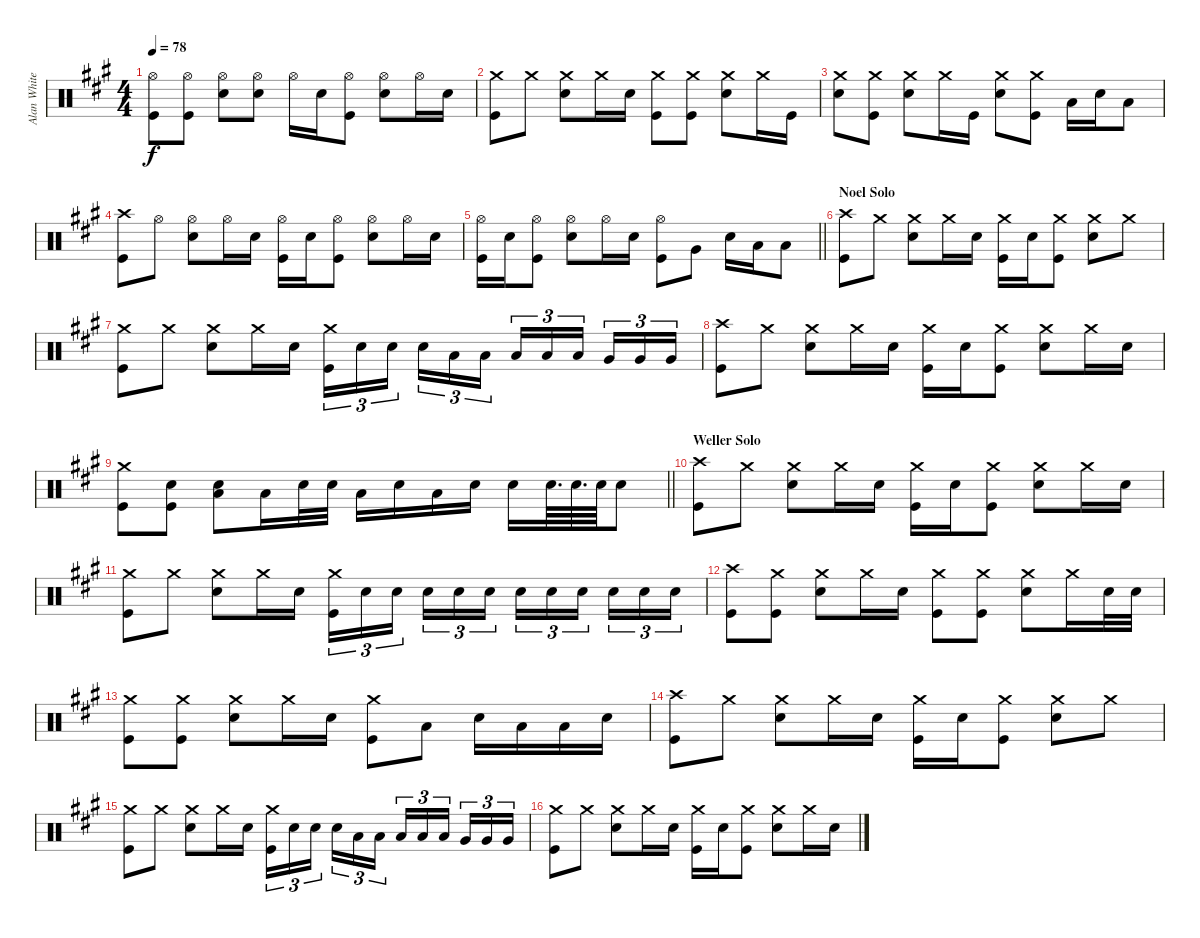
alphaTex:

\track ("Alan White (Drums)" "Alan White") {instrument percussion}
\staff {score}
\articulation defaults
\ts (4 4)
\tempo 78
\clef neutral
\ks a
("Hi-Hat (open)" "Kick (hit)").8{dy f} ("Hi-Hat (open)" "Kick (hit)").8 ("Hi-Hat (open)" "Snare (hit) 2").8 ("Hi-Hat (open)" "Snare (hit) 2").8 "Hi-Hat (open)".16 "Snare (hit) 2".16 ("Hi-Hat (open)" "Kick (hit)").8 ("Hi-Hat (open)" "Snare (hit) 2").8 "Hi-Hat (open)".16 "Snare (hit) 2".16 |
("Crash medium (hit)" "Kick (hit)").8 "Crash medium (hit)".8 ("Crash medium (hit)" "Snare (hit) 2").8 "Crash medium (hit)".16 "Snare (hit) 2".16 ("Crash medium (hit)" "Kick (hit)").8 ("Crash medium (hit)" "Kick (hit)").8 ("Crash medium (hit)" "Snare (hit) 2").8 "Crash medium (hit)".16 "Kick (hit)".16 |
("Crash medium (hit)" "Snare (hit) 2").8 ("Crash medium (hit)" "Kick (hit)").8 ("Crash medium (hit)" "Snare (hit) 2").8 "Crash medium (hit)".16 "Kick (hit)".16 ("Crash medium (hit)" "Snare (hit) 2").8 ("Crash medium (hit)" "Kick (hit)").8 "Low Tom (hit)".16 "Snare (hit) 2".16 "Low Tom (hit)".8 |
("Crash high (hit)" "Kick (hit)").8 "Hi-Hat (open)".8 ("Hi-Hat (open)" "Snare (hit) 2").8 "Hi-Hat (open)".16 "Snare (hit) 2".16 ("Hi-Hat (open)" "Kick (hit)").16 "Snare (hit) 2".16 ("Hi-Hat (open)" "Kick (hit)").8 ("Hi-Hat (open)" "Snare (hit) 2").8 "Hi-Hat (open)".16 "Snare (hit) 2".16 |
\barLineRight lightlight
("Hi-Hat (open)" "Kick (hit)").16 "Snare (hit) 2".16 ("Hi-Hat (open)" "Kick (hit)").8 ("Hi-Hat (open)" "Snare (hit) 2").8 "Hi-Hat (open)".16 "Snare (hit) 2".16 ("Hi-Hat (open)" "Kick (hit)").8 "Very Low Tom (hit)".8 "Snare (hit) 2".16 "Low Tom (hit)".16 "Low Tom (hit)".8 |
\section ("" "Noel Solo")
("Crash high (hit)" "Kick (hit)").8 "Crash medium (hit)".8 ("Crash medium (hit)" "Snare (hit) 2").8 "Crash medium (hit)".16 "Snare (hit) 2".16 ("Crash medium (hit)" "Kick (hit)").16 "Snare (hit) 2".16 ("Crash medium (hit)" "Kick (hit)").8 ("Crash medium (hit)" "Snare (hit) 2").8 "Crash medium (hit)".8 |
("Crash medium (hit)" "Kick (hit)").8 "Crash medium (hit)".8 ("Crash medium (hit)" "Snare (hit) 2").8 "Crash medium (hit)".16 "Snare (hit) 2".16 ("Crash medium (hit)" "Kick (hit)").16{tu (3 2)} "Snare (hit) 2".16{tu (3 2)} "Snare (hit) 2".16{tu (3 2) beam splitsecondary} "Snare (hit) 2".16{tu (3 2)} "Low Tom (hit)".16{tu (3 2)} "Low Tom (hit)".16{tu (3 2)} "Low Tom (hit)".16{tu (3 2)} "Low Tom (hit)".16{tu (3 2)} "Low Tom (hit)".16{tu (3 2) beam splitsecondary} "Very Low Tom (hit)".16{tu (3 2)} "Very Low Tom (hit)".16{tu (3 2)} "Very Low Tom (hit)".16{tu (3 2)} |
("Crash high (hit)" "Kick (hit)").8 "Crash medium (hit)".8 ("Crash medium (hit)" "Snare (hit) 2").8 "Crash medium (hit)".16 "Snare (hit) 2".16 ("Crash medium (hit)" "Kick (hit)").16 "Snare (hit) 2".16 ("Crash medium (hit)" "Kick (hit)").8 ("Crash medium (hit)" "Snare (hit) 2").8 "Crash medium (hit)".16 "Snare (hit) 2".16 |
\barLineRight lightlight
("Crash medium (hit)" "Kick (hit)").8 ("Snare (hit) 2" "Kick (hit)").8 ("Low Tom (hit)" "Snare (hit) 2").8 "Low Tom (hit)".16 "Snare (hit) 2".32 "Snare (hit) 2".32 "Low Tom (hit)".16 "Snare (hit) 2".16 "Low Tom (hit)".16 "Snare (hit) 2".16 "Snare (hit) 2".16 "Snare (hit) 2".64{d} "Snare (hit) 2".64{d} "Snare (hit) 2".64 "Snare (hit) 2".8 |
\section ("" "Weller Solo")
("Crash high (hit)" "Kick (hit)").8 "Crash medium (hit)".8 ("Crash medium (hit)" "Snare (hit) 2").8 "Crash medium (hit)".16 "Snare (hit) 2".16 ("Crash medium (hit)" "Kick (hit)").16 "Snare (hit) 2".16 ("Crash medium (hit)" "Kick (hit)").8 ("Crash medium (hit)" "Snare (hit) 2").8 "Crash medium (hit)".16 "Snare (hit) 2".16 |
("Crash medium (hit)" "Kick (hit)").8 "Crash medium (hit)".8 ("Crash medium (hit)" "Snare (hit) 2").8 "Crash medium (hit)".16 "Snare (hit) 2".16 ("Crash medium (hit)" "Kick (hit)").16{tu (3 2)} "Snare (hit) 2".16{tu (3 2)} "Snare (hit) 2".16{tu (3 2) beam splitsecondary} "Snare (hit) 2".16{tu (3 2)} "Snare (hit) 2".16{tu (3 2)} "Snare (hit) 2".16{tu (3 2)} "Snare (hit) 2".16{tu (3 2)} "Snare (hit) 2".16{tu (3 2)} "Snare (hit) 2".16{tu (3 2) beam splitsecondary} "Snare (hit) 2".16{tu (3 2)} "Snare (hit) 2".16{tu (3 2)} "Snare (hit) 2".16{tu (3 2)} |
("Crash high (hit)" "Kick (hit)").8 ("Crash medium (hit)" "Kick (hit)").8 ("Crash medium (hit)" "Snare (hit) 2").8 "Crash medium (hit)".16 "Snare (hit) 2".16 ("Crash medium (hit)" "Kick (hit)").8 ("Crash medium (hit)" "Kick (hit)").8 ("Crash medium (hit)" "Snare (hit) 2").8 "Crash medium (hit)".16 "Snare (hit) 2".32 "Snare (hit) 2".32 |
("Crash medium (hit)" "Kick (hit)").8 ("Crash medium (hit)" "Kick (hit)").8 ("Crash medium (hit)" "Snare (hit) 2").8 "Crash medium (hit)".16 "Snare (hit) 2".16 ("Crash medium (hit)" "Kick (hit)").8 "Low Tom (hit)".8 "Snare (hit) 2".16 "Low Tom (hit)".16 "Low Tom (hit)".16 "Snare (hit) 2".16 |
("Crash high (hit)" "Kick (hit)").8 "Crash medium (hit)".8 ("Crash medium (hit)" "Snare (hit) 2").8 "Crash medium (hit)".16 "Snare (hit) 2".16 ("Crash medium (hit)" "Kick (hit)").16 "Snare (hit) 2".16 ("Crash medium (hit)" "Kick (hit)").8 ("Crash medium (hit)" "Snare (hit) 2").8 "Crash medium (hit)".8 |
("Crash medium (hit)" "Kick (hit)").8 "Crash medium (hit)".8 ("Crash medium (hit)" "Snare (hit) 2").8 "Crash medium (hit)".16 "Snare (hit) 2".16 ("Crash medium (hit)" "Kick (hit)").16{tu (3 2)} "Snare (hit) 2".16{tu (3 2)} "Snare (hit) 2".16{tu (3 2) beam splitsecondary} "Snare (hit) 2".16{tu (3 2)} "Low Tom (hit)".16{tu (3 2)} "Low Tom (hit)".16{tu (3 2)} "Low Tom (hit)".16{tu (3 2)} "Low Tom (hit)".16{tu (3 2)} "Low Tom (hit)".16{tu (3 2) beam splitsecondary} "Very Low Tom (hit)".16{tu (3 2)} "Very Low Tom (hit)".16{tu (3 2)} "Very Low Tom (hit)".16{tu (3 2)} |
("Crash medium (hit)" "Kick (hit)").8 "Crash medium (hit)".8 ("Crash medium (hit)" "Snare (hit) 2").8 "Crash medium (hit)".16 "Snare (hit) 2".16 ("Crash medium (hit)" "Kick (hit)").16 "Snare (hit) 2".16 ("Crash medium (hit)" "Kick (hit)").8 ("Crash medium (hit)" "Snare (hit) 2").8 "Crash medium (hit)".16 "Snare (hit) 2".16
